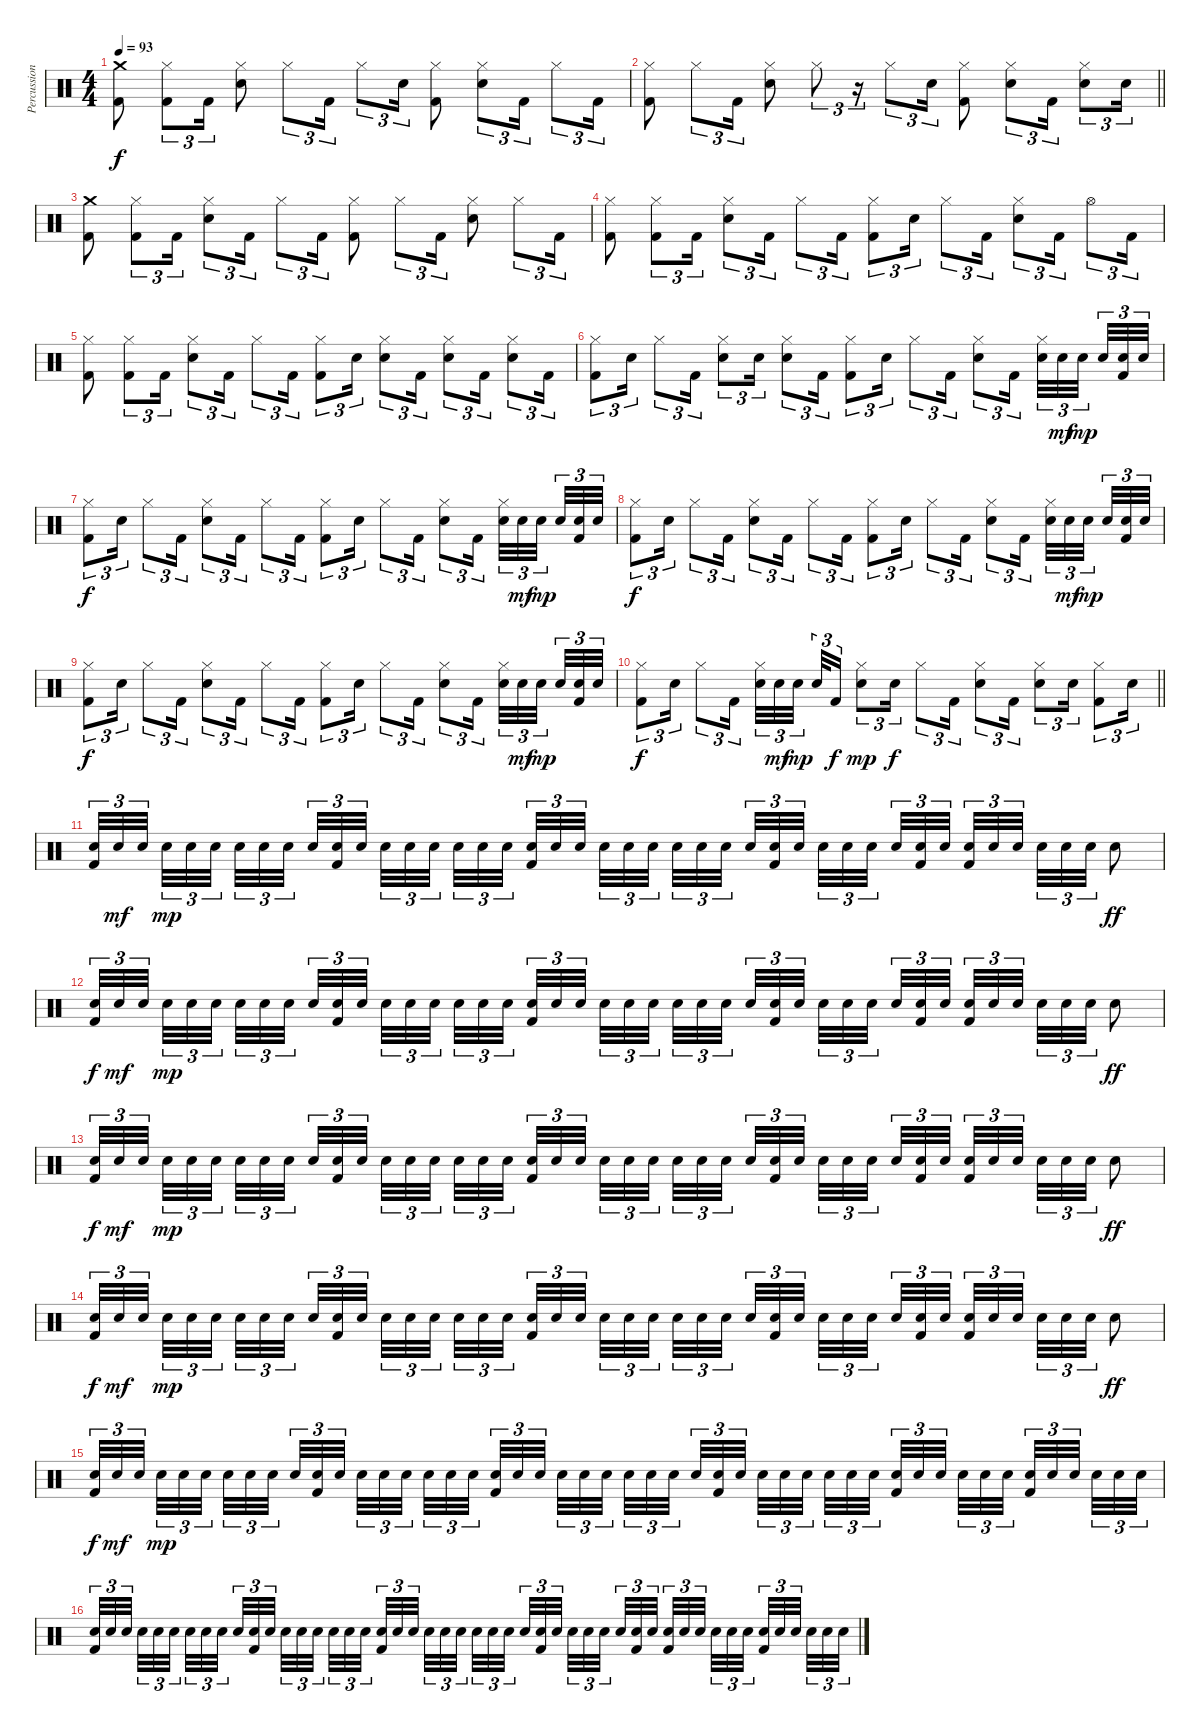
\track ("Percussion" "Percussion") {instrument percussion}
\staff {score}
\articulation defaults
\ts (4 4)
\tempo 93
\clef neutral
\ks c
("Crash medium (hit)" "Kick (hit) 2").8{dy f} ("Hi-Hat (closed)" "Kick (hit) 2").8{tu (3 2)} "Kick (hit) 2".16{tu (3 2)} ("Hi-Hat (closed)" "Electric Snare (hit)").8 "Hi-Hat (closed)".8{tu (3 2)} "Kick (hit) 2".16{tu (3 2)} "Hi-Hat (closed)".8{tu (3 2)} "Electric Snare (hit)".16{tu (3 2)} ("Hi-Hat (closed)" "Kick (hit) 2").8 ("Hi-Hat (closed)" "Electric Snare (hit)").8{tu (3 2)} "Kick (hit) 2".16{tu (3 2)} "Hi-Hat (closed)".8{tu (3 2)} "Kick (hit) 2".16{tu (3 2)} |
\barLineRight lightlight
("Hi-Hat (closed)" "Kick (hit) 2").8 "Hi-Hat (closed)".8{tu (3 2)} "Kick (hit) 2".16{tu (3 2)} ("Hi-Hat (closed)" "Electric Snare (hit)").8 "Hi-Hat (closed)".8{tu (3 2)} r.16{tu (3 2)} "Hi-Hat (closed)".8{tu (3 2)} "Electric Snare (hit)".16{tu (3 2)} ("Hi-Hat (closed)" "Kick (hit) 2").8 ("Hi-Hat (closed)" "Electric Snare (hit)").8{tu (3 2)} "Kick (hit) 2".16{tu (3 2)} ("Hi-Hat (closed)" "Electric Snare (hit)").8{tu (3 2)} "Electric Snare (hit)".16{tu (3 2)} |
("Crash medium (hit)" "Kick (hit) 2").8 ("Hi-Hat (closed)" "Kick (hit) 2").8{tu (3 2)} "Kick (hit) 2".16{tu (3 2)} ("Hi-Hat (closed)" "Electric Snare (hit)").8{tu (3 2)} "Kick (hit) 2".16{tu (3 2)} "Hi-Hat (closed)".8{tu (3 2)} "Kick (hit) 2".16{tu (3 2)} ("Hi-Hat (closed)" "Kick (hit) 2").8 "Hi-Hat (closed)".8{tu (3 2)} "Kick (hit) 2".16{tu (3 2)} ("Hi-Hat (closed)" "Electric Snare (hit)").8 "Hi-Hat (closed)".8{tu (3 2)} "Kick (hit) 2".16{tu (3 2)} |
("Hi-Hat (closed)" "Kick (hit) 2").8 ("Hi-Hat (closed)" "Kick (hit) 2").8{tu (3 2)} "Kick (hit) 2".16{tu (3 2)} ("Hi-Hat (closed)" "Electric Snare (hit)").8{tu (3 2)} "Kick (hit) 2".16{tu (3 2)} "Hi-Hat (closed)".8{tu (3 2)} "Kick (hit) 2".16{tu (3 2)} ("Hi-Hat (closed)" "Kick (hit) 2").8{tu (3 2)} "Electric Snare (hit)".16{tu (3 2)} "Hi-Hat (closed)".8{tu (3 2)} "Kick (hit) 2".16{tu (3 2)} ("Hi-Hat (closed)" "Electric Snare (hit)").8{tu (3 2)} "Kick (hit) 2".16{tu (3 2)} "Hi-Hat (open)".8{tu (3 2)} "Kick (hit) 2".16{tu (3 2)} |
("Hi-Hat (closed)" "Kick (hit) 2").8 ("Hi-Hat (closed)" "Kick (hit) 2").8{tu (3 2)} "Kick (hit) 2".16{tu (3 2)} ("Hi-Hat (closed)" "Electric Snare (hit)").8{tu (3 2)} "Kick (hit) 2".16{tu (3 2)} "Hi-Hat (closed)".8{tu (3 2)} "Kick (hit) 2".16{tu (3 2)} ("Hi-Hat (closed)" "Kick (hit) 2").8{tu (3 2)} "Electric Snare (hit)".16{tu (3 2)} ("Hi-Hat (closed)" "Electric Snare (hit)").8{tu (3 2)} "Kick (hit) 2".16{tu (3 2)} ("Hi-Hat (closed)" "Electric Snare (hit)").8{tu (3 2)} "Kick (hit) 2".16{tu (3 2)} ("Hi-Hat (closed)" "Electric Snare (hit)").8{tu (3 2)} "Kick (hit) 2".16{tu (3 2)} |
("Hi-Hat (closed)" "Kick (hit) 2").8{tu (3 2)} "Electric Snare (hit)".16{tu (3 2)} "Hi-Hat (closed)".8{tu (3 2)} "Kick (hit) 2".16{tu (3 2)} ("Hi-Hat (closed)" "Electric Snare (hit)").8{tu (3 2)} "Electric Snare (hit)".16{tu (3 2)} ("Hi-Hat (closed)" "Electric Snare (hit)").8{tu (3 2)} "Kick (hit) 2".16{tu (3 2)} ("Hi-Hat (closed)" "Kick (hit) 2").8{tu (3 2)} "Electric Snare (hit)".16{tu (3 2)} "Hi-Hat (closed)".8{tu (3 2)} "Kick (hit) 2".16{tu (3 2)} ("Hi-Hat (closed)" "Electric Snare (hit)").8{tu (3 2)} "Kick (hit) 2".16{tu (3 2) beam splitsecondary} ("Hi-Hat (closed)" "Electric Snare (hit)").32{tu (3 2)} "Electric Snare (hit)".32{tu (3 2) dy mf} "Electric Snare (hit)".32{tu (3 2) dy mp beam splitsecondary} "Electric Snare (hit)".32{tu (3 2)} ("Electric Snare (hit)" "Kick (hit) 2").32{tu (3 2)} "Electric Snare (hit)".32{tu (3 2)} |
("Hi-Hat (closed)" "Kick (hit) 2").8{tu (3 2) dy f} "Electric Snare (hit)".16{tu (3 2)} "Hi-Hat (closed)".8{tu (3 2)} "Kick (hit) 2".16{tu (3 2)} ("Hi-Hat (closed)" "Electric Snare (hit)").8{tu (3 2)} "Kick (hit) 2".16{tu (3 2)} "Hi-Hat (closed)".8{tu (3 2)} "Kick (hit) 2".16{tu (3 2)} ("Hi-Hat (closed)" "Kick (hit) 2").8{tu (3 2)} "Electric Snare (hit)".16{tu (3 2)} "Hi-Hat (closed)".8{tu (3 2)} "Kick (hit) 2".16{tu (3 2)} ("Hi-Hat (closed)" "Electric Snare (hit)").8{tu (3 2)} "Kick (hit) 2".16{tu (3 2) beam splitsecondary} ("Hi-Hat (closed)" "Electric Snare (hit)").32{tu (3 2)} "Electric Snare (hit)".32{tu (3 2) dy mf} "Electric Snare (hit)".32{tu (3 2) dy mp beam splitsecondary} "Electric Snare (hit)".32{tu (3 2)} ("Electric Snare (hit)" "Kick (hit) 2").32{tu (3 2)} "Electric Snare (hit)".32{tu (3 2)} |
("Hi-Hat (closed)" "Kick (hit) 2").8{tu (3 2) dy f} "Electric Snare (hit)".16{tu (3 2)} "Hi-Hat (closed)".8{tu (3 2)} "Kick (hit) 2".16{tu (3 2)} ("Hi-Hat (closed)" "Electric Snare (hit)").8{tu (3 2)} "Kick (hit) 2".16{tu (3 2)} "Hi-Hat (closed)".8{tu (3 2)} "Kick (hit) 2".16{tu (3 2)} ("Hi-Hat (closed)" "Kick (hit) 2").8{tu (3 2)} "Electric Snare (hit)".16{tu (3 2)} "Hi-Hat (closed)".8{tu (3 2)} "Kick (hit) 2".16{tu (3 2)} ("Hi-Hat (closed)" "Electric Snare (hit)").8{tu (3 2)} "Kick (hit) 2".16{tu (3 2) beam splitsecondary} ("Hi-Hat (closed)" "Electric Snare (hit)").32{tu (3 2)} "Electric Snare (hit)".32{tu (3 2) dy mf} "Electric Snare (hit)".32{tu (3 2) dy mp beam splitsecondary} "Electric Snare (hit)".32{tu (3 2)} ("Electric Snare (hit)" "Kick (hit) 2").32{tu (3 2)} "Electric Snare (hit)".32{tu (3 2)} |
("Hi-Hat (closed)" "Kick (hit) 2").8{tu (3 2) dy f} "Electric Snare (hit)".16{tu (3 2)} "Hi-Hat (closed)".8{tu (3 2)} "Kick (hit) 2".16{tu (3 2)} ("Hi-Hat (closed)" "Electric Snare (hit)").8{tu (3 2)} "Kick (hit) 2".16{tu (3 2)} "Hi-Hat (closed)".8{tu (3 2)} "Kick (hit) 2".16{tu (3 2)} ("Hi-Hat (closed)" "Kick (hit) 2").8{tu (3 2)} "Electric Snare (hit)".16{tu (3 2)} "Hi-Hat (closed)".8{tu (3 2)} "Kick (hit) 2".16{tu (3 2)} ("Hi-Hat (closed)" "Electric Snare (hit)").8{tu (3 2)} "Kick (hit) 2".16{tu (3 2) beam splitsecondary} ("Hi-Hat (closed)" "Electric Snare (hit)").32{tu (3 2)} "Electric Snare (hit)".32{tu (3 2) dy mf} "Electric Snare (hit)".32{tu (3 2) dy mp beam splitsecondary} "Electric Snare (hit)".32{tu (3 2)} ("Electric Snare (hit)" "Kick (hit) 2").32{tu (3 2)} "Electric Snare (hit)".32{tu (3 2)} |
\barLineRight lightlight
("Hi-Hat (closed)" "Kick (hit) 2").8{tu (3 2) dy f} "Electric Snare (hit)".16{tu (3 2)} "Hi-Hat (closed)".8{tu (3 2)} "Kick (hit) 2".16{tu (3 2)} ("Hi-Hat (closed)" "Electric Snare (hit)").32{tu (3 2)} "Electric Snare (hit)".32{tu (3 2) dy mf} "Electric Snare (hit)".32{tu (3 2) dy mp beam splitsecondary} "Electric Snare (hit)".32{tu (3 2)} "Kick (hit) 2".16{tu (3 2) dy f} ("Hi-Hat (closed)" "Electric Snare (hit)").8{tu (3 2) dy mp} "Electric Snare (hit)".16{tu (3 2) dy f} "Hi-Hat (closed)".8{tu (3 2)} "Kick (hit) 2".16{tu (3 2)} ("Hi-Hat (closed)" "Electric Snare (hit)").8{tu (3 2)} "Kick (hit) 2".16{tu (3 2)} ("Hi-Hat (closed)" "Electric Snare (hit)").8{tu (3 2)} "Electric Snare (hit)".16{tu (3 2)} ("Hi-Hat (closed)" "Kick (hit) 2").8{tu (3 2)} "Electric Snare (hit)".16{tu (3 2)} |
("Electric Snare (hit)" "Kick (hit) 2").32{tu (3 2)} "Electric Snare (hit)".32{tu (3 2) dy mf} "Electric Snare (hit)".32{tu (3 2) beam splitsecondary} "Electric Snare (hit)".32{tu (3 2) dy mp} "Electric Snare (hit)".32{tu (3 2)} "Electric Snare (hit)".32{tu (3 2) beam splitsecondary} "Electric Snare (hit)".32{tu (3 2)} "Electric Snare (hit)".32{tu (3 2)} "Electric Snare (hit)".32{tu (3 2) beam splitsecondary} "Electric Snare (hit)".32{tu (3 2)} ("Electric Snare (hit)" "Kick (hit) 2").32{tu (3 2)} "Electric Snare (hit)".32{tu (3 2)} "Electric Snare (hit)".32{tu (3 2)} "Electric Snare (hit)".32{tu (3 2)} "Electric Snare (hit)".32{tu (3 2) beam splitsecondary} "Electric Snare (hit)".32{tu (3 2)} "Electric Snare (hit)".32{tu (3 2)} "Electric Snare (hit)".32{tu (3 2) beam splitsecondary} ("Electric Snare (hit)" "Kick (hit) 2").32{tu (3 2)} "Electric Snare (hit)".32{tu (3 2)} "Electric Snare (hit)".32{tu (3 2) beam splitsecondary} "Electric Snare (hit)".32{tu (3 2)} "Electric Snare (hit)".32{tu (3 2)} "Electric Snare (hit)".32{tu (3 2)} "Electric Snare (hit)".32{tu (3 2)} "Electric Snare (hit)".32{tu (3 2)} "Electric Snare (hit)".32{tu (3 2) beam splitsecondary} "Electric Snare (hit)".32{tu (3 2)} ("Electric Snare (hit)" "Kick (hit) 2").32{tu (3 2)} "Electric Snare (hit)".32{tu (3 2) beam splitsecondary} "Electric Snare (hit)".32{tu (3 2)} "Electric Snare (hit)".32{tu (3 2)} "Electric Snare (hit)".32{tu (3 2) beam splitsecondary} "Electric Snare (hit)".32{tu (3 2)} ("Electric Snare (hit)" "Kick (hit) 2").32{tu (3 2)} "Electric Snare (hit)".32{tu (3 2)} ("Electric Snare (hit)" "Kick (hit) 2").32{tu (3 2)} "Electric Snare (hit)".32{tu (3 2)} "Electric Snare (hit)".32{tu (3 2) beam splitsecondary} "Electric Snare (hit)".32{tu (3 2)} "Electric Snare (hit)".32{tu (3 2)} "Electric Snare (hit)".32{tu (3 2)} "Electric Snare (hit)".8{dy ff} |
("Electric Snare (hit)" "Kick (hit) 2").32{tu (3 2) dy f} "Electric Snare (hit)".32{tu (3 2) dy mf} "Electric Snare (hit)".32{tu (3 2) beam splitsecondary} "Electric Snare (hit)".32{tu (3 2) dy mp} "Electric Snare (hit)".32{tu (3 2)} "Electric Snare (hit)".32{tu (3 2) beam splitsecondary} "Electric Snare (hit)".32{tu (3 2)} "Electric Snare (hit)".32{tu (3 2)} "Electric Snare (hit)".32{tu (3 2) beam splitsecondary} "Electric Snare (hit)".32{tu (3 2)} ("Electric Snare (hit)" "Kick (hit) 2").32{tu (3 2)} "Electric Snare (hit)".32{tu (3 2)} "Electric Snare (hit)".32{tu (3 2)} "Electric Snare (hit)".32{tu (3 2)} "Electric Snare (hit)".32{tu (3 2) beam splitsecondary} "Electric Snare (hit)".32{tu (3 2)} "Electric Snare (hit)".32{tu (3 2)} "Electric Snare (hit)".32{tu (3 2) beam splitsecondary} ("Electric Snare (hit)" "Kick (hit) 2").32{tu (3 2)} "Electric Snare (hit)".32{tu (3 2)} "Electric Snare (hit)".32{tu (3 2) beam splitsecondary} "Electric Snare (hit)".32{tu (3 2)} "Electric Snare (hit)".32{tu (3 2)} "Electric Snare (hit)".32{tu (3 2)} "Electric Snare (hit)".32{tu (3 2)} "Electric Snare (hit)".32{tu (3 2)} "Electric Snare (hit)".32{tu (3 2) beam splitsecondary} "Electric Snare (hit)".32{tu (3 2)} ("Electric Snare (hit)" "Kick (hit) 2").32{tu (3 2)} "Electric Snare (hit)".32{tu (3 2) beam splitsecondary} "Electric Snare (hit)".32{tu (3 2)} "Electric Snare (hit)".32{tu (3 2)} "Electric Snare (hit)".32{tu (3 2) beam splitsecondary} "Electric Snare (hit)".32{tu (3 2)} ("Electric Snare (hit)" "Kick (hit) 2").32{tu (3 2)} "Electric Snare (hit)".32{tu (3 2)} ("Electric Snare (hit)" "Kick (hit) 2").32{tu (3 2)} "Electric Snare (hit)".32{tu (3 2)} "Electric Snare (hit)".32{tu (3 2) beam splitsecondary} "Electric Snare (hit)".32{tu (3 2)} "Electric Snare (hit)".32{tu (3 2)} "Electric Snare (hit)".32{tu (3 2)} "Electric Snare (hit)".8{dy ff} |
("Electric Snare (hit)" "Kick (hit) 2").32{tu (3 2) dy f} "Electric Snare (hit)".32{tu (3 2) dy mf} "Electric Snare (hit)".32{tu (3 2) beam splitsecondary} "Electric Snare (hit)".32{tu (3 2) dy mp} "Electric Snare (hit)".32{tu (3 2)} "Electric Snare (hit)".32{tu (3 2) beam splitsecondary} "Electric Snare (hit)".32{tu (3 2)} "Electric Snare (hit)".32{tu (3 2)} "Electric Snare (hit)".32{tu (3 2) beam splitsecondary} "Electric Snare (hit)".32{tu (3 2)} ("Electric Snare (hit)" "Kick (hit) 2").32{tu (3 2)} "Electric Snare (hit)".32{tu (3 2)} "Electric Snare (hit)".32{tu (3 2)} "Electric Snare (hit)".32{tu (3 2)} "Electric Snare (hit)".32{tu (3 2) beam splitsecondary} "Electric Snare (hit)".32{tu (3 2)} "Electric Snare (hit)".32{tu (3 2)} "Electric Snare (hit)".32{tu (3 2) beam splitsecondary} ("Electric Snare (hit)" "Kick (hit) 2").32{tu (3 2)} "Electric Snare (hit)".32{tu (3 2)} "Electric Snare (hit)".32{tu (3 2) beam splitsecondary} "Electric Snare (hit)".32{tu (3 2)} "Electric Snare (hit)".32{tu (3 2)} "Electric Snare (hit)".32{tu (3 2)} "Electric Snare (hit)".32{tu (3 2)} "Electric Snare (hit)".32{tu (3 2)} "Electric Snare (hit)".32{tu (3 2) beam splitsecondary} "Electric Snare (hit)".32{tu (3 2)} ("Electric Snare (hit)" "Kick (hit) 2").32{tu (3 2)} "Electric Snare (hit)".32{tu (3 2) beam splitsecondary} "Electric Snare (hit)".32{tu (3 2)} "Electric Snare (hit)".32{tu (3 2)} "Electric Snare (hit)".32{tu (3 2) beam splitsecondary} "Electric Snare (hit)".32{tu (3 2)} ("Electric Snare (hit)" "Kick (hit) 2").32{tu (3 2)} "Electric Snare (hit)".32{tu (3 2)} ("Electric Snare (hit)" "Kick (hit) 2").32{tu (3 2)} "Electric Snare (hit)".32{tu (3 2)} "Electric Snare (hit)".32{tu (3 2) beam splitsecondary} "Electric Snare (hit)".32{tu (3 2)} "Electric Snare (hit)".32{tu (3 2)} "Electric Snare (hit)".32{tu (3 2)} "Electric Snare (hit)".8{dy ff} |
("Electric Snare (hit)" "Kick (hit) 2").32{tu (3 2) dy f} "Electric Snare (hit)".32{tu (3 2) dy mf} "Electric Snare (hit)".32{tu (3 2) beam splitsecondary} "Electric Snare (hit)".32{tu (3 2) dy mp} "Electric Snare (hit)".32{tu (3 2)} "Electric Snare (hit)".32{tu (3 2) beam splitsecondary} "Electric Snare (hit)".32{tu (3 2)} "Electric Snare (hit)".32{tu (3 2)} "Electric Snare (hit)".32{tu (3 2) beam splitsecondary} "Electric Snare (hit)".32{tu (3 2)} ("Electric Snare (hit)" "Kick (hit) 2").32{tu (3 2)} "Electric Snare (hit)".32{tu (3 2)} "Electric Snare (hit)".32{tu (3 2)} "Electric Snare (hit)".32{tu (3 2)} "Electric Snare (hit)".32{tu (3 2) beam splitsecondary} "Electric Snare (hit)".32{tu (3 2)} "Electric Snare (hit)".32{tu (3 2)} "Electric Snare (hit)".32{tu (3 2) beam splitsecondary} ("Electric Snare (hit)" "Kick (hit) 2").32{tu (3 2)} "Electric Snare (hit)".32{tu (3 2)} "Electric Snare (hit)".32{tu (3 2) beam splitsecondary} "Electric Snare (hit)".32{tu (3 2)} "Electric Snare (hit)".32{tu (3 2)} "Electric Snare (hit)".32{tu (3 2)} "Electric Snare (hit)".32{tu (3 2)} "Electric Snare (hit)".32{tu (3 2)} "Electric Snare (hit)".32{tu (3 2) beam splitsecondary} "Electric Snare (hit)".32{tu (3 2)} ("Electric Snare (hit)" "Kick (hit) 2").32{tu (3 2)} "Electric Snare (hit)".32{tu (3 2) beam splitsecondary} "Electric Snare (hit)".32{tu (3 2)} "Electric Snare (hit)".32{tu (3 2)} "Electric Snare (hit)".32{tu (3 2) beam splitsecondary} "Electric Snare (hit)".32{tu (3 2)} ("Electric Snare (hit)" "Kick (hit) 2").32{tu (3 2)} "Electric Snare (hit)".32{tu (3 2)} ("Electric Snare (hit)" "Kick (hit) 2").32{tu (3 2)} "Electric Snare (hit)".32{tu (3 2)} "Electric Snare (hit)".32{tu (3 2) beam splitsecondary} "Electric Snare (hit)".32{tu (3 2)} "Electric Snare (hit)".32{tu (3 2)} "Electric Snare (hit)".32{tu (3 2)} "Electric Snare (hit)".8{dy ff} |
("Electric Snare (hit)" "Kick (hit) 2").32{tu (3 2) dy f} "Electric Snare (hit)".32{tu (3 2) dy mf} "Electric Snare (hit)".32{tu (3 2) beam splitsecondary} "Electric Snare (hit)".32{tu (3 2) dy mp} "Electric Snare (hit)".32{tu (3 2)} "Electric Snare (hit)".32{tu (3 2) beam splitsecondary} "Electric Snare (hit)".32{tu (3 2)} "Electric Snare (hit)".32{tu (3 2)} "Electric Snare (hit)".32{tu (3 2) beam splitsecondary} "Electric Snare (hit)".32{tu (3 2)} ("Electric Snare (hit)" "Kick (hit) 2").32{tu (3 2)} "Electric Snare (hit)".32{tu (3 2)} "Electric Snare (hit)".32{tu (3 2)} "Electric Snare (hit)".32{tu (3 2)} "Electric Snare (hit)".32{tu (3 2) beam splitsecondary} "Electric Snare (hit)".32{tu (3 2)} "Electric Snare (hit)".32{tu (3 2)} "Electric Snare (hit)".32{tu (3 2) beam splitsecondary} ("Electric Snare (hit)" "Kick (hit) 2").32{tu (3 2)} "Electric Snare (hit)".32{tu (3 2)} "Electric Snare (hit)".32{tu (3 2) beam splitsecondary} "Electric Snare (hit)".32{tu (3 2)} "Electric Snare (hit)".32{tu (3 2)} "Electric Snare (hit)".32{tu (3 2)} "Electric Snare (hit)".32{tu (3 2)} "Electric Snare (hit)".32{tu (3 2)} "Electric Snare (hit)".32{tu (3 2) beam splitsecondary} "Electric Snare (hit)".32{tu (3 2)} ("Electric Snare (hit)" "Kick (hit) 2").32{tu (3 2)} "Electric Snare (hit)".32{tu (3 2) beam splitsecondary} "Electric Snare (hit)".32{tu (3 2)} "Electric Snare (hit)".32{tu (3 2)} "Electric Snare (hit)".32{tu (3 2) beam splitsecondary} "Electric Snare (hit)".32{tu (3 2)} "Electric Snare (hit)".32{tu (3 2)} "Electric Snare (hit)".32{tu (3 2)} ("Electric Snare (hit)" "Kick (hit) 2").32{tu (3 2)} "Electric Snare (hit)".32{tu (3 2)} "Electric Snare (hit)".32{tu (3 2) beam splitsecondary} "Electric Snare (hit)".32{tu (3 2)} "Electric Snare (hit)".32{tu (3 2)} "Electric Snare (hit)".32{tu (3 2) beam splitsecondary} ("Electric Snare (hit)" "Kick (hit) 2").32{tu (3 2)} "Electric Snare (hit)".32{tu (3 2)} "Electric Snare (hit)".32{tu (3 2) beam splitsecondary} "Electric Snare (hit)".32{tu (3 2)} "Electric Snare (hit)".32{tu (3 2)} "Electric Snare (hit)".32{tu (3 2)} |
("Electric Snare (hit)" "Kick (hit) 2").32{tu (3 2)} "Electric Snare (hit)".32{tu (3 2)} "Electric Snare (hit)".32{tu (3 2) beam splitsecondary} "Electric Snare (hit)".32{tu (3 2)} "Electric Snare (hit)".32{tu (3 2)} "Electric Snare (hit)".32{tu (3 2) beam splitsecondary} "Electric Snare (hit)".32{tu (3 2)} "Electric Snare (hit)".32{tu (3 2)} "Electric Snare (hit)".32{tu (3 2) beam splitsecondary} "Electric Snare (hit)".32{tu (3 2)} ("Electric Snare (hit)" "Kick (hit) 2").32{tu (3 2)} "Electric Snare (hit)".32{tu (3 2)} "Electric Snare (hit)".32{tu (3 2)} "Electric Snare (hit)".32{tu (3 2)} "Electric Snare (hit)".32{tu (3 2) beam splitsecondary} "Electric Snare (hit)".32{tu (3 2)} "Electric Snare (hit)".32{tu (3 2)} "Electric Snare (hit)".32{tu (3 2) beam splitsecondary} ("Electric Snare (hit)" "Kick (hit) 2").32{tu (3 2)} "Electric Snare (hit)".32{tu (3 2)} "Electric Snare (hit)".32{tu (3 2) beam splitsecondary} "Electric Snare (hit)".32{tu (3 2)} "Electric Snare (hit)".32{tu (3 2)} "Electric Snare (hit)".32{tu (3 2)} "Electric Snare (hit)".32{tu (3 2)} "Electric Snare (hit)".32{tu (3 2)} "Electric Snare (hit)".32{tu (3 2) beam splitsecondary} "Electric Snare (hit)".32{tu (3 2)} ("Electric Snare (hit)" "Kick (hit) 2").32{tu (3 2)} "Electric Snare (hit)".32{tu (3 2) beam splitsecondary} "Electric Snare (hit)".32{tu (3 2)} "Electric Snare (hit)".32{tu (3 2)} "Electric Snare (hit)".32{tu (3 2) beam splitsecondary} "Electric Snare (hit)".32{tu (3 2)} ("Electric Snare (hit)" "Kick (hit) 2").32{tu (3 2)} "Electric Snare (hit)".32{tu (3 2)} ("Electric Snare (hit)" "Kick (hit) 2").32{tu (3 2)} "Electric Snare (hit)".32{tu (3 2)} "Electric Snare (hit)".32{tu (3 2) beam splitsecondary} "Electric Snare (hit)".32{tu (3 2)} "Electric Snare (hit)".32{tu (3 2)} "Electric Snare (hit)".32{tu (3 2) beam splitsecondary} ("Electric Snare (hit)" "Kick (hit) 2").32{tu (3 2)} "Electric Snare (hit)".32{tu (3 2)} "Electric Snare (hit)".32{tu (3 2) beam splitsecondary} "Electric Snare (hit)".32{tu (3 2)} "Electric Snare (hit)".32{tu (3 2)} "Electric Snare (hit)".32{tu (3 2)}
